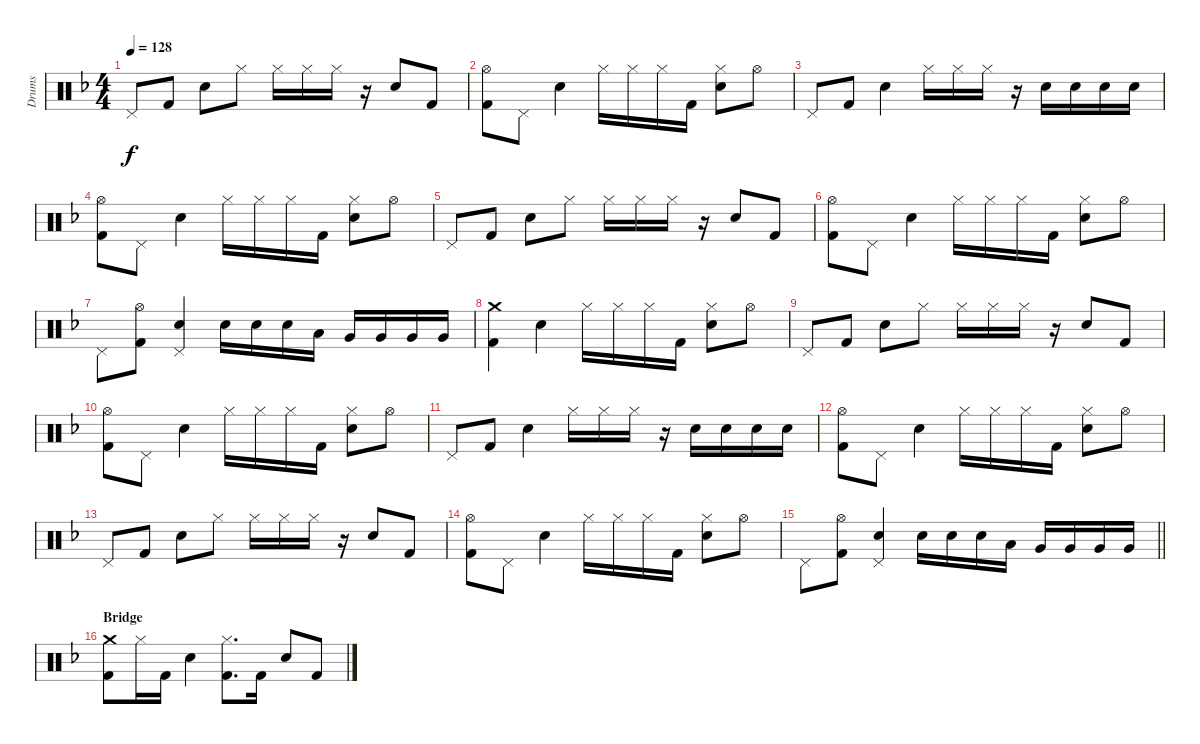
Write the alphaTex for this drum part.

\track ("Drums" "Drums") {instrument percussion}
\staff {score}
\articulation defaults
\ts (4 4)
\tempo 128
\clef neutral
\ks f "Pedal Hi-Hat (hit)".8{dy f} "Kick (hit) 2".8 "Electric Snare (hit)".8 "Hi-Hat (closed)".8 "Hi-Hat (closed)".16 "Hi-Hat (closed)".16 "Hi-Hat (closed)".16
r.16 "Electric Snare (hit)".8 "Kick (hit) 2".8 |
("Hi-Hat (open)" "Kick (hit) 2").8 "Pedal Hi-Hat (hit)".8 "Electric Snare (hit)".4 "Hi-Hat (closed)".16 "Hi-Hat (closed)".16 "Hi-Hat (closed)".16 "Kick (hit) 2".16 ("Hi-Hat (closed)" "Electric Snare (hit)").8 "Hi-Hat (open)".8 |
"Pedal Hi-Hat (hit)".8 "Kick (hit) 2".8 "Electric Snare (hit)".4 "Hi-Hat (closed)".16 "Hi-Hat (closed)".16 "Hi-Hat (closed)".16 r.16 "Electric Snare (hit)".16 "Electric Snare (hit)".16 "Electric Snare (hit)".16 "Electric Snare (hit)".16 |
("Hi-Hat (open)" "Kick (hit) 2").8 "Pedal Hi-Hat (hit)".8 "Electric Snare (hit)".4 "Hi-Hat (closed)".16 "Hi-Hat (closed)".16 "Hi-Hat (closed)".16 "Kick (hit) 2".16 ("Hi-Hat (closed)" "Electric Snare (hit)").8 "Hi-Hat (open)".8 |
"Pedal Hi-Hat (hit)".8 "Kick (hit) 2".8 "Electric Snare (hit)".8 "Hi-Hat (closed)".8 "Hi-Hat (closed)".16 "Hi-Hat (closed)".16 "Hi-Hat (closed)".16 r.16 "Electric Snare (hit)".8 "Kick (hit) 2".8 |
("Hi-Hat (open)" "Kick (hit) 2").8 "Pedal Hi-Hat (hit)".8 "Electric Snare (hit)".4 "Hi-Hat (closed)".16 "Hi-Hat (closed)".16 "Hi-Hat (closed)".16 "Kick (hit) 2".16 ("Hi-Hat (closed)" "Electric Snare (hit)").8 "Hi-Hat (open)".8 |
"Pedal Hi-Hat (hit)".8 ("Hi-Hat (open)" "Kick (hit) 2").8 ("Electric Snare (hit)" "Pedal Hi-Hat (hit)").4 "Electric Snare (hit)".16 "Electric Snare (hit)".16 "Electric Snare (hit)".16 "Low Tom (hit)".16 "Very Low Tom (hit)".16 "Very Low Tom (hit)".16 "Very Low Tom (hit)".16 "Very Low Tom (hit)".16 |
("Crash medium (hit)" "Kick (hit) 2").4 "Electric Snare (hit)".4 "Hi-Hat (closed)".16 "Hi-Hat (closed)".16 "Hi-Hat (closed)".16 "Kick (hit) 2".16 ("Hi-Hat (closed)" "Electric Snare (hit)").8 "Hi-Hat (open)".8 |
"Pedal Hi-Hat (hit)".8 "Kick (hit) 2".8 "Electric Snare (hit)".8 "Hi-Hat (closed)".8 "Hi-Hat (closed)".16 "Hi-Hat (closed)".16 "Hi-Hat (closed)".16 r.16 "Electric Snare (hit)".8 "Kick (hit) 2".8 |
("Hi-Hat (open)" "Kick (hit) 2").8 "Pedal Hi-Hat (hit)".8 "Electric Snare (hit)".4 "Hi-Hat (closed)".16 "Hi-Hat (closed)".16 "Hi-Hat (closed)".16 "Kick (hit) 2".16 ("Hi-Hat (closed)" "Electric Snare (hit)").8 "Hi-Hat (open)".8 |
"Pedal Hi-Hat (hit)".8 "Kick (hit) 2".8 "Electric Snare (hit)".4 "Hi-Hat (closed)".16 "Hi-Hat (closed)".16 "Hi-Hat (closed)".16 r.16 "Electric Snare (hit)".16 "Electric Snare (hit)".16 "Electric Snare (hit)".16 "Electric Snare (hit)".16 |
("Hi-Hat (open)" "Kick (hit) 2").8 "Pedal Hi-Hat (hit)".8 "Electric Snare (hit)".4 "Hi-Hat (closed)".16 "Hi-Hat (closed)".16 "Hi-Hat (closed)".16 "Kick (hit) 2".16 ("Hi-Hat (closed)" "Electric Snare (hit)").8 "Hi-Hat (open)".8 |
"Pedal Hi-Hat (hit)".8 "Kick (hit) 2".8 "Electric Snare (hit)".8 "Hi-Hat (closed)".8 "Hi-Hat (closed)".16 "Hi-Hat (closed)".16 "Hi-Hat (closed)".16 r.16 "Electric Snare (hit)".8 "Kick (hit) 2".8 |
("Hi-Hat (open)" "Kick (hit) 2").8 "Pedal Hi-Hat (hit)".8 "Electric Snare (hit)".4 "Hi-Hat (closed)".16 "Hi-Hat (closed)".16 "Hi-Hat (closed)".16 "Kick (hit) 2".16 ("Hi-Hat (closed)" "Electric Snare (hit)").8 "Hi-Hat (open)".8 |
\barLineRight lightlight "Pedal Hi-Hat (hit)".8
("Hi-Hat (open)" "Kick (hit) 2").8 ("Electric Snare (hit)" "Pedal Hi-Hat (hit)").4 "Electric Snare (hit)".16 "Electric Snare (hit)".16 "Electric Snare (hit)".16 "Low Tom (hit)".16 "Very Low Tom (hit)".16 "Very Low Tom (hit)".16 "Very Low Tom (hit)".16 "Very Low Tom (hit)".16 |
\section ("" "Bridge")
("Crash medium (hit)" "Kick (hit) 2").8 "Hi-Hat (closed)".16 "Kick (hit) 2".16 "Electric Snare (hit)".4 ("Hi-Hat (closed)" "Kick (hit) 2").8{d} "Kick (hit) 2".16 "Electric Snare (hit)".8 "Kick (hit) 2".8
